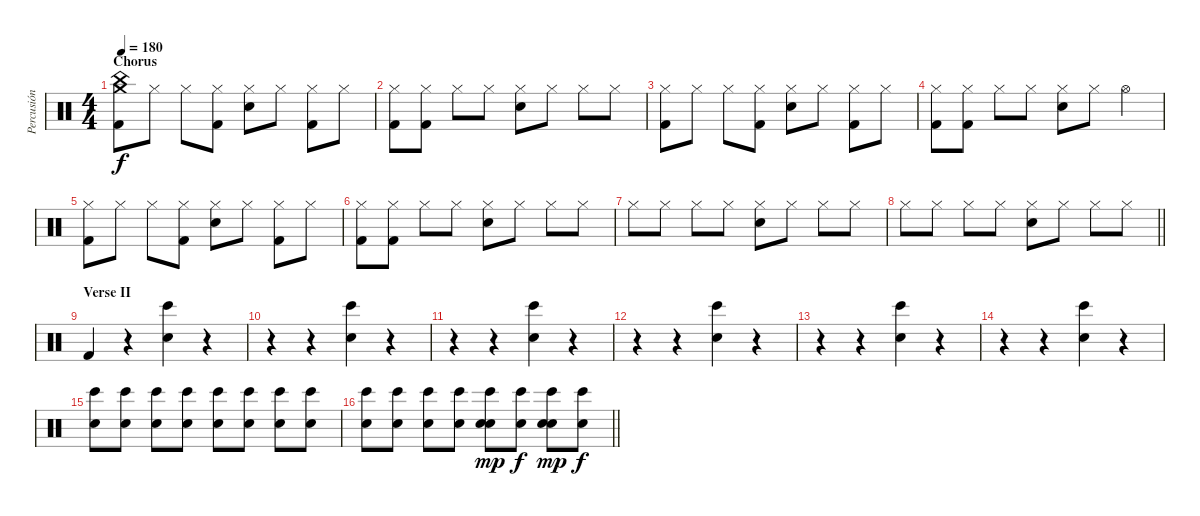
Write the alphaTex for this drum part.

\track ("Percusión" "Percusión") {instrument percussion}
\staff {score}
\articulation defaults
\ts (4 4)
\section ("" "Chorus")
\tempo 180
\clef neutral
\ks c
("Crash medium (hit)" "China (hit)" "Kick (hit) 2").8{dy f} "Hi-Hat (closed)".8 "Hi-Hat (closed)".8 ("Hi-Hat (closed)" "Kick (hit) 2").8 ("Hi-Hat (closed)" "Snare (hit) 2").8 "Hi-Hat (closed)".8 ("Hi-Hat (closed)" "Kick (hit) 2").8 "Hi-Hat (closed)".8 |
("Hi-Hat (closed)" "Kick (hit) 2").8 ("Hi-Hat (closed)" "Kick (hit) 2").8 "Hi-Hat (closed)".8 "Hi-Hat (closed)".8 ("Hi-Hat (closed)" "Snare (hit) 2").8 "Hi-Hat (closed)".8 "Hi-Hat (closed)".8 "Hi-Hat (closed)".8 |
("Hi-Hat (closed)" "Kick (hit) 2").8 "Hi-Hat (closed)".8 "Hi-Hat (closed)".8 ("Hi-Hat (closed)" "Kick (hit) 2").8 ("Hi-Hat (closed)" "Snare (hit) 2").8 "Hi-Hat (closed)".8 ("Hi-Hat (closed)" "Kick (hit) 2").8 "Hi-Hat (closed)".8 |
("Hi-Hat (closed)" "Kick (hit) 2").8 ("Hi-Hat (closed)" "Kick (hit) 2").8 "Hi-Hat (closed)".8 "Hi-Hat (closed)".8 ("Hi-Hat (closed)" "Snare (hit) 2").8 "Hi-Hat (closed)".8 "Hi-Hat (open)".4 |
("Hi-Hat (closed)" "Kick (hit) 2").8 "Hi-Hat (closed)".8 "Hi-Hat (closed)".8 ("Hi-Hat (closed)" "Kick (hit) 2").8 ("Hi-Hat (closed)" "Snare (hit) 2").8 "Hi-Hat (closed)".8 ("Hi-Hat (closed)" "Kick (hit) 2").8 "Hi-Hat (closed)".8 |
("Hi-Hat (closed)" "Kick (hit) 2").8 ("Hi-Hat (closed)" "Kick (hit) 2").8 "Hi-Hat (closed)".8 "Hi-Hat (closed)".8 ("Hi-Hat (closed)" "Snare (hit) 2").8 "Hi-Hat (closed)".8 "Hi-Hat (closed)".8 "Hi-Hat (closed)".8 |
"Hi-Hat (closed)".8 "Hi-Hat (closed)".8 "Hi-Hat (closed)".8 "Hi-Hat (closed)".8 ("Hi-Hat (closed)" "Snare (hit) 2").8 "Hi-Hat (closed)".8 "Hi-Hat (closed)".8 "Hi-Hat (closed)".8 |
\barLineRight lightlight "Hi-Hat (closed)".8 "Hi-Hat (closed)".8 "Hi-Hat (closed)".8 "Hi-Hat (closed)".8
("Hi-Hat (closed)" "Snare (hit) 2").8 "Hi-Hat (closed)".8 "Hi-Hat (closed)".8 "Hi-Hat (closed)".8 |
\section ("" "Verse II")
"Kick (hit) 2".4 r.4 ("Bongo High (hit)" "Snare (hit) 2").4 r.4 |
r.4 r.4 ("Bongo High (hit)" "Snare (hit) 2").4 r.4 |
r.4 r.4 ("Bongo High (hit)" "Snare (hit) 2").4 r.4 |
r.4 r.4 ("Bongo High (hit)" "Snare (hit) 2").4 r.4 |
r.4 r.4 ("Bongo High (hit)" "Snare (hit) 2").4 r.4 |
r.4 r.4 ("Bongo High (hit)" "Snare (hit) 2").4 r.4 |
("Bongo High (hit)" "Snare (hit) 2").8 ("Bongo High (hit)" "Snare (hit) 2").8 ("Bongo High (hit)" "Snare (hit) 2").8 ("Bongo High (hit)" "Snare (hit) 2").8 ("Bongo High (hit)" "Snare (hit) 2").8 ("Bongo High (hit)" "Snare (hit) 2").8 ("Bongo High (hit)" "Snare (hit) 2").8 ("Bongo High (hit)" "Snare (hit) 2").8 |
\barLineRight lightlight
("Bongo High (hit)" "Snare (hit) 2").8 ("Bongo High (hit)" "Snare (hit) 2").8 ("Bongo High (hit)" "Snare (hit) 2").8 ("Bongo High (hit)" "Snare (hit) 2").8 ("Electric Snare (hit)" "Bongo High (hit)" "Snare (hit) 2").8{dy mp} ("Bongo High (hit)" "Snare (hit) 2").8{dy f} ("Electric Snare (hit)" "Bongo High (hit)" "Snare (hit) 2").8{dy mp} ("Bongo High (hit)" "Snare (hit) 2").8{dy f}
